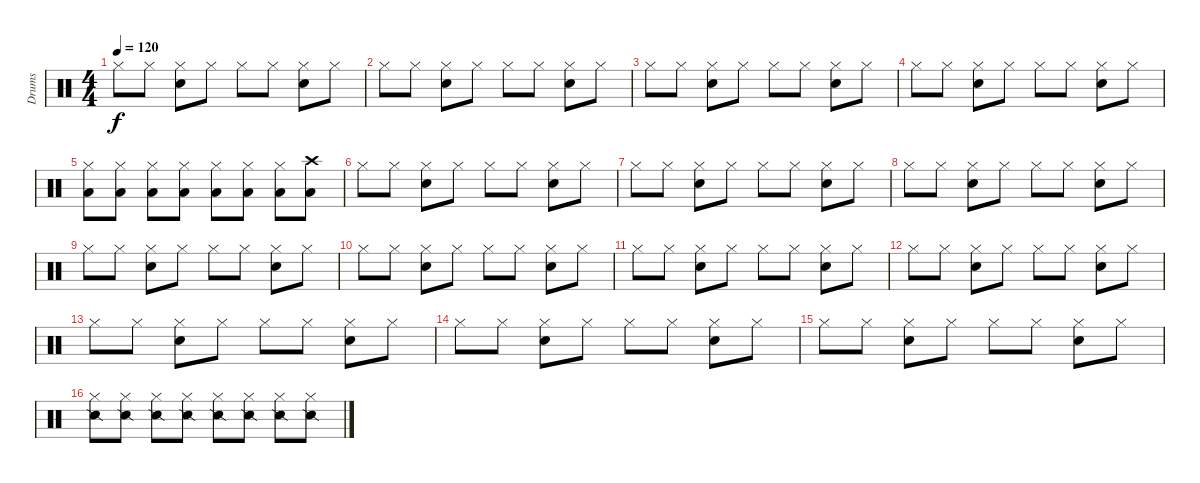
\track ("Drums" "Drums") {instrument percussion}
\staff {score}
\articulation defaults
\ts (4 4)
\tempo 120
\clef neutral
\ks c "Hi-Hat (closed)".8{dy f} "Hi-Hat (closed)".8
("Hi-Hat (closed)" "Electric Snare (hit)").8 "Hi-Hat (closed)".8 "Hi-Hat (closed)".8 "Hi-Hat (closed)".8 ("Hi-Hat (closed)" "Electric Snare (hit)").8 "Hi-Hat (closed)".8 |
"Hi-Hat (closed)".8 "Hi-Hat (closed)".8 ("Hi-Hat (closed)" "Electric Snare (hit)").8 "Hi-Hat (closed)".8 "Hi-Hat (closed)".8 "Hi-Hat (closed)".8 ("Hi-Hat (closed)" "Electric Snare (hit)").8 "Hi-Hat (closed)".8 |
"Hi-Hat (closed)".8 "Hi-Hat (closed)".8 ("Hi-Hat (closed)" "Electric Snare (hit)").8 "Hi-Hat (closed)".8 "Hi-Hat (closed)".8 "Hi-Hat (closed)".8 ("Hi-Hat (closed)" "Electric Snare (hit)").8 "Hi-Hat (closed)".8 |
"Hi-Hat (closed)".8 "Hi-Hat (closed)".8 ("Hi-Hat (closed)" "Electric Snare (hit)").8 "Hi-Hat (closed)".8 "Hi-Hat (closed)".8 "Hi-Hat (closed)".8 ("Hi-Hat (closed)" "Electric Snare (hit)").8 "Hi-Hat (closed)".8 |
("Low Floor Tom (hit)" "Hi-Hat (closed)").8 ("Low Floor Tom (hit)" "Hi-Hat (closed)").8 ("Low Floor Tom (hit)" "Hi-Hat (closed)").8 ("Low Floor Tom (hit)" "Hi-Hat (closed)").8 ("Low Floor Tom (hit)" "Hi-Hat (closed)").8 ("Low Floor Tom (hit)" "Hi-Hat (closed)").8 ("Low Floor Tom (hit)" "Hi-Hat (closed)").8 ("Low Floor Tom (hit)" "Crash high (hit)").8 |
"Hi-Hat (closed)".8 "Hi-Hat (closed)".8 ("Hi-Hat (closed)" "Electric Snare (hit)").8 "Hi-Hat (closed)".8 "Hi-Hat (closed)".8 "Hi-Hat (closed)".8 ("Hi-Hat (closed)" "Electric Snare (hit)").8 "Hi-Hat (closed)".8 |
"Hi-Hat (closed)".8 "Hi-Hat (closed)".8 ("Hi-Hat (closed)" "Electric Snare (hit)").8 "Hi-Hat (closed)".8 "Hi-Hat (closed)".8 "Hi-Hat (closed)".8 ("Hi-Hat (closed)" "Electric Snare (hit)").8 "Hi-Hat (closed)".8 |
"Hi-Hat (closed)".8 "Hi-Hat (closed)".8 ("Hi-Hat (closed)" "Electric Snare (hit)").8 "Hi-Hat (closed)".8 "Hi-Hat (closed)".8 "Hi-Hat (closed)".8 ("Hi-Hat (closed)" "Electric Snare (hit)").8 "Hi-Hat (closed)".8 |
"Hi-Hat (closed)".8 "Hi-Hat (closed)".8 ("Hi-Hat (closed)" "Electric Snare (hit)").8 "Hi-Hat (closed)".8 "Hi-Hat (closed)".8 "Hi-Hat (closed)".8 ("Hi-Hat (closed)" "Electric Snare (hit)").8 "Hi-Hat (closed)".8 |
"Hi-Hat (closed)".8 "Hi-Hat (closed)".8 ("Hi-Hat (closed)" "Electric Snare (hit)").8 "Hi-Hat (closed)".8 "Hi-Hat (closed)".8 "Hi-Hat (closed)".8 ("Hi-Hat (closed)" "Electric Snare (hit)").8 "Hi-Hat (closed)".8 |
"Hi-Hat (closed)".8 "Hi-Hat (closed)".8 ("Hi-Hat (closed)" "Electric Snare (hit)").8 "Hi-Hat (closed)".8 "Hi-Hat (closed)".8 "Hi-Hat (closed)".8 ("Hi-Hat (closed)" "Electric Snare (hit)").8 "Hi-Hat (closed)".8 |
"Hi-Hat (closed)".8 "Hi-Hat (closed)".8 ("Hi-Hat (closed)" "Electric Snare (hit)").8 "Hi-Hat (closed)".8 "Hi-Hat (closed)".8 "Hi-Hat (closed)".8 ("Hi-Hat (closed)" "Electric Snare (hit)").8 "Hi-Hat (closed)".8 |
"Hi-Hat (closed)".8 "Hi-Hat (closed)".8 ("Hi-Hat (closed)" "Electric Snare (hit)").8 "Hi-Hat (closed)".8 "Hi-Hat (closed)".8 "Hi-Hat (closed)".8 ("Hi-Hat (closed)" "Electric Snare (hit)").8 "Hi-Hat (closed)".8 |
"Hi-Hat (closed)".8 "Hi-Hat (closed)".8 ("Hi-Hat (closed)" "Electric Snare (hit)").8 "Hi-Hat (closed)".8 "Hi-Hat (closed)".8 "Hi-Hat (closed)".8 ("Hi-Hat (closed)" "Electric Snare (hit)").8 "Hi-Hat (closed)".8 |
"Hi-Hat (closed)".8 "Hi-Hat (closed)".8 ("Hi-Hat (closed)" "Electric Snare (hit)").8 "Hi-Hat (closed)".8 "Hi-Hat (closed)".8 "Hi-Hat (closed)".8 ("Hi-Hat (closed)" "Electric Snare (hit)").8 "Hi-Hat (closed)".8 |
("Snare (side stick) 2" "Hi-Hat (closed)").8 ("Snare (side stick) 2" "Hi-Hat (closed)").8 ("Snare (side stick) 2" "Hi-Hat (closed)").8 ("Snare (side stick) 2" "Hi-Hat (closed)").8 ("Snare (side stick) 2" "Hi-Hat (closed)").8 ("Snare (side stick) 2" "Hi-Hat (closed)").8 ("Snare (side stick) 2" "Hi-Hat (closed)").8 ("Snare (side stick) 2" "Hi-Hat (closed)").8
